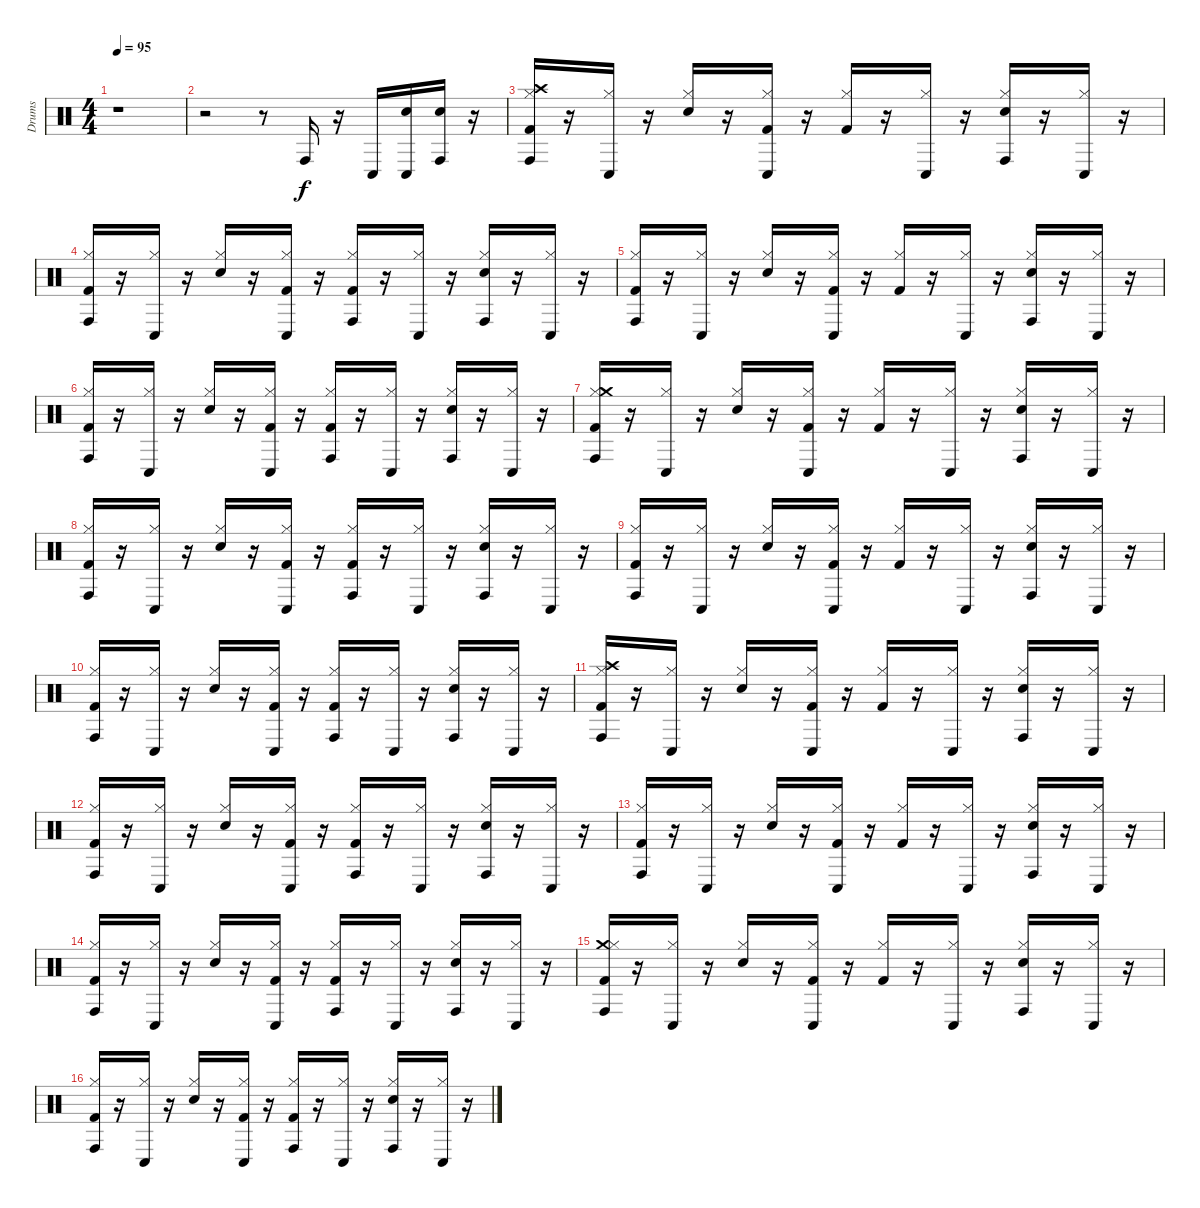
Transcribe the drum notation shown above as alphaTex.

\track ("Drums" "Drums") {instrument percussion}
\staff {score}
\articulation defaults
\ts (4 4)
\tempo 95
\clef neutral
\ks c
r.1{dy f} |
r.2 r.8 "Conga high (hit)".16 r.16 "Conga low (hit)".16 ("Snare (hit)" "Conga low (hit)").16 ("Snare (hit)" "Conga high (hit)").16 r.16 |
("Hi-Hat (closed)" "Kick (hit) 2" "Conga high (hit)" "Crash high (hit)").16 r.16 ("Conga low (hit)" "Hi-Hat (closed)").16 r.16 ("Hi-Hat (closed)" "Snare (hit) 2").16 r.16 ("Kick (hit) 2" "Conga low (hit)" "Hi-Hat (closed)").16 r.16 ("Kick (hit) 2" "Hi-Hat (closed)").16 r.16 ("Conga low (hit)" "Hi-Hat (closed)").16 r.16 ("Snare (hit) 2" "Conga high (hit)" "Hi-Hat (closed)").16 r.16 ("Hi-Hat (closed)" "Conga low (hit)").16 r.16 |
("Hi-Hat (closed)" "Conga high (hit)" "Kick (hit) 2").16 r.16 ("Hi-Hat (closed)" "Conga low (hit)").16 r.16 ("Snare (hit) 2" "Hi-Hat (closed)").16 r.16 ("Hi-Hat (closed)" "Conga low (hit)" "Kick (hit) 2").16 r.16 ("Hi-Hat (closed)" "Conga high (hit)" "Kick (hit) 2").16 r.16 ("Hi-Hat (closed)" "Conga low (hit)").16 r.16 ("Snare (hit) 2" "Conga high (hit)" "Hi-Hat (closed)").16 r.16 ("Hi-Hat (closed)" "Conga low (hit)").16 r.16 |
("Conga high (hit)" "Kick (hit) 2" "Hi-Hat (closed)").16 r.16 ("Conga low (hit)" "Hi-Hat (closed)").16 r.16 ("Hi-Hat (closed)" "Snare (hit) 2").16 r.16 ("Kick (hit) 2" "Hi-Hat (closed)" "Conga low (hit)").16 r.16 ("Kick (hit) 2" "Hi-Hat (closed)").16 r.16 ("Hi-Hat (closed)" "Conga low (hit)").16 r.16 ("Snare (hit) 2" "Conga high (hit)" "Hi-Hat (closed)").16 r.16 ("Conga low (hit)" "Hi-Hat (closed)").16 r.16 |
("Hi-Hat (closed)" "Conga high (hit)" "Kick (hit) 2").16 r.16 ("Hi-Hat (closed)" "Conga low (hit)").16 r.16 ("Snare (hit) 2" "Hi-Hat (closed)").16 r.16 ("Kick (hit) 2" "Conga low (hit)" "Hi-Hat (closed)").16 r.16 ("Conga high (hit)" "Hi-Hat (closed)" "Kick (hit) 2").16 r.16 ("Conga low (hit)" "Hi-Hat (closed)").16 r.16 ("Snare (hit) 2" "Hi-Hat (closed)" "Conga high (hit)").16 r.16 ("Conga low (hit)" "Hi-Hat (closed)").16 r.16 |
("Hi-Hat (closed)" "Kick (hit) 2" "Conga high (hit)" "Crash medium (hit)").16 r.16 ("Hi-Hat (closed)" "Conga low (hit)").16 r.16 ("Snare (hit) 2" "Hi-Hat (closed)").16 r.16 ("Kick (hit) 2" "Conga low (hit)" "Hi-Hat (closed)").16 r.16 ("Hi-Hat (closed)" "Kick (hit) 2").16 r.16 ("Conga low (hit)" "Hi-Hat (closed)").16 r.16 ("Hi-Hat (closed)" "Snare (hit) 2" "Conga high (hit)").16 r.16 ("Hi-Hat (closed)" "Conga low (hit)").16 r.16 |
("Kick (hit) 2" "Conga high (hit)" "Hi-Hat (closed)").16 r.16 ("Hi-Hat (closed)" "Conga low (hit)").16 r.16 ("Snare (hit) 2" "Hi-Hat (closed)").16 r.16 ("Kick (hit) 2" "Conga low (hit)" "Hi-Hat (closed)").16 r.16 ("Kick (hit) 2" "Conga high (hit)" "Hi-Hat (closed)").16 r.16 ("Conga low (hit)" "Hi-Hat (closed)").16 r.16 ("Conga high (hit)" "Snare (hit) 2" "Hi-Hat (closed)").16 r.16 ("Conga low (hit)" "Hi-Hat (closed)").16 r.16 |
("Kick (hit) 2" "Hi-Hat (closed)" "Conga high (hit)").16 r.16 ("Hi-Hat (closed)" "Conga low (hit)").16 r.16 ("Hi-Hat (closed)" "Snare (hit) 2").16 r.16 ("Conga low (hit)" "Kick (hit) 2" "Hi-Hat (closed)").16 r.16 ("Hi-Hat (closed)" "Kick (hit) 2").16 r.16 ("Conga low (hit)" "Hi-Hat (closed)").16 r.16 ("Snare (hit) 2" "Hi-Hat (closed)" "Conga high (hit)").16 r.16 ("Hi-Hat (closed)" "Conga low (hit)").16 r.16 |
("Conga high (hit)" "Kick (hit) 2" "Hi-Hat (closed)").16 r.16 ("Hi-Hat (closed)" "Conga low (hit)").16 r.16 ("Hi-Hat (closed)" "Snare (hit) 2").16 r.16 ("Kick (hit) 2" "Conga low (hit)" "Hi-Hat (closed)").16 r.16 ("Conga high (hit)" "Hi-Hat (closed)" "Kick (hit) 2").16 r.16 ("Hi-Hat (closed)" "Conga low (hit)").16 r.16 ("Conga high (hit)" "Hi-Hat (closed)" "Snare (hit) 2").16 r.16 ("Conga low (hit)" "Hi-Hat (closed)").16 r.16 |
("Kick (hit) 2" "Crash high (hit)" "Conga high (hit)" "Hi-Hat (closed)").16 r.16 ("Hi-Hat (closed)" "Conga low (hit)").16 r.16 ("Hi-Hat (closed)" "Snare (hit) 2").16 r.16 ("Kick (hit) 2" "Conga low (hit)" "Hi-Hat (closed)").16 r.16 ("Hi-Hat (closed)" "Kick (hit) 2").16 r.16 ("Conga low (hit)" "Hi-Hat (closed)").16 r.16 ("Hi-Hat (closed)" "Snare (hit) 2" "Conga high (hit)").16 r.16 ("Hi-Hat (closed)" "Conga low (hit)").16 r.16 |
("Conga high (hit)" "Kick (hit) 2" "Hi-Hat (closed)").16 r.16 ("Hi-Hat (closed)" "Conga low (hit)").16 r.16 ("Snare (hit) 2" "Hi-Hat (closed)").16 r.16 ("Conga low (hit)" "Kick (hit) 2" "Hi-Hat (closed)").16 r.16 ("Conga high (hit)" "Hi-Hat (closed)" "Kick (hit) 2").16 r.16 ("Conga low (hit)" "Hi-Hat (closed)").16 r.16 ("Conga high (hit)" "Snare (hit) 2" "Hi-Hat (closed)").16 r.16 ("Hi-Hat (closed)" "Conga low (hit)").16 r.16 |
("Conga high (hit)" "Kick (hit) 2" "Hi-Hat (closed)").16 r.16 ("Hi-Hat (closed)" "Conga low (hit)").16 r.16 ("Hi-Hat (closed)" "Snare (hit) 2").16 r.16 ("Conga low (hit)" "Kick (hit) 2" "Hi-Hat (closed)").16 r.16 ("Kick (hit) 2" "Hi-Hat (closed)").16 r.16 ("Conga low (hit)" "Hi-Hat (closed)").16 r.16 ("Conga high (hit)" "Hi-Hat (closed)" "Snare (hit) 2").16 r.16 ("Hi-Hat (closed)" "Conga low (hit)").16 r.16 |
("Hi-Hat (closed)" "Conga high (hit)" "Kick (hit) 2").16 r.16 ("Hi-Hat (closed)" "Conga low (hit)").16 r.16 ("Hi-Hat (closed)" "Snare (hit) 2").16 r.16 ("Hi-Hat (closed)" "Kick (hit) 2" "Conga low (hit)").16 r.16 ("Hi-Hat (closed)" "Conga high (hit)" "Kick (hit) 2").16 r.16 ("Conga low (hit)" "Hi-Hat (closed)").16 r.16 ("Snare (hit) 2" "Conga high (hit)" "Hi-Hat (closed)").16 r.16 ("Hi-Hat (closed)" "Conga low (hit)").16 r.16 |
("Crash medium (hit)" "Kick (hit) 2" "Hi-Hat (closed)" "Conga high (hit)").16 r.16 ("Hi-Hat (closed)" "Conga low (hit)").16 r.16 ("Snare (hit) 2" "Hi-Hat (closed)").16 r.16 ("Kick (hit) 2" "Hi-Hat (closed)" "Conga low (hit)").16 r.16 ("Hi-Hat (closed)" "Kick (hit) 2").16 r.16 ("Hi-Hat (closed)" "Conga low (hit)").16 r.16 ("Conga high (hit)" "Snare (hit) 2" "Hi-Hat (closed)").16 r.16 ("Hi-Hat (closed)" "Conga low (hit)").16 r.16 |
("Kick (hit) 2" "Conga high (hit)" "Hi-Hat (closed)").16 r.16 ("Conga low (hit)" "Hi-Hat (closed)").16 r.16 ("Snare (hit) 2" "Hi-Hat (closed)").16 r.16 ("Kick (hit) 2" "Conga low (hit)" "Hi-Hat (closed)").16 r.16 ("Hi-Hat (closed)" "Conga high (hit)" "Kick (hit) 2").16 r.16 ("Hi-Hat (closed)" "Conga low (hit)").16 r.16 ("Hi-Hat (closed)" "Conga high (hit)" "Snare (hit) 2").16 r.16 ("Hi-Hat (closed)" "Conga low (hit)").16 r.16
